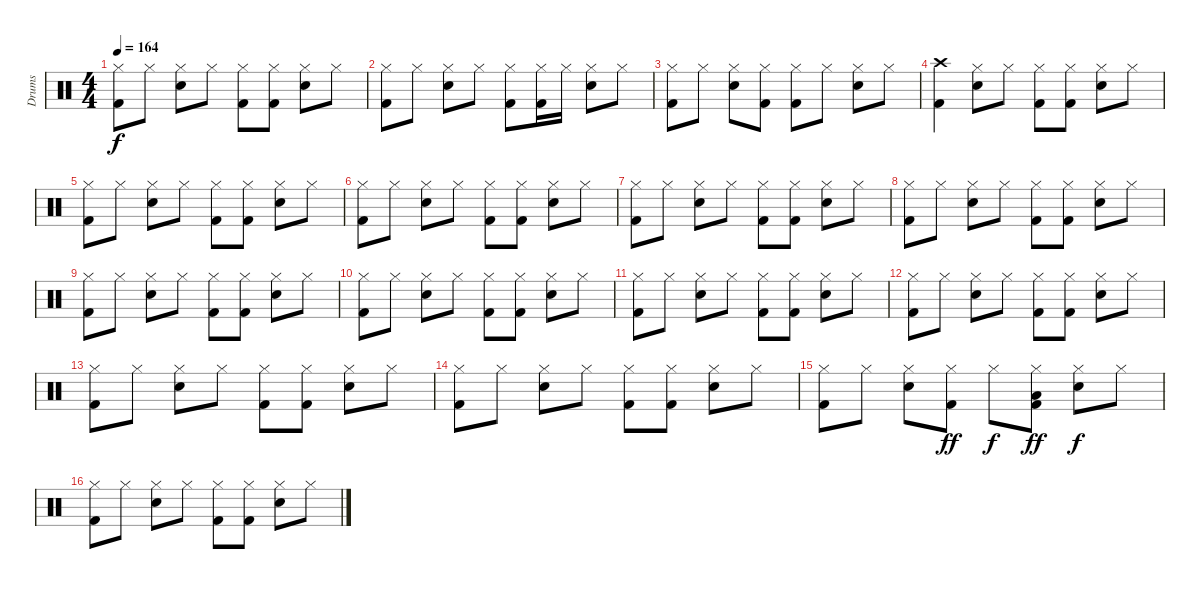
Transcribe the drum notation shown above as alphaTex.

\track ("Drums" "Drums") {instrument percussion}
\staff {score}
\articulation defaults
\ts (4 4)
\tempo 164
\clef neutral
\ks c
("Hi-Hat (closed)" "Kick (hit) 2").8{dy f} "Hi-Hat (closed)".8 ("Hi-Hat (closed)" "Snare (hit) 2").8 "Hi-Hat (closed)".8 ("Hi-Hat (closed)" "Kick (hit) 2").8 ("Hi-Hat (closed)" "Kick (hit) 2").8 ("Hi-Hat (closed)" "Snare (hit) 2").8 "Hi-Hat (closed)".8 |
("Hi-Hat (closed)" "Kick (hit) 2").8 "Hi-Hat (closed)".8 ("Hi-Hat (closed)" "Snare (hit) 2").8 "Hi-Hat (closed)".8 ("Hi-Hat (closed)" "Kick (hit) 2").8 ("Hi-Hat (closed)" "Kick (hit) 2").16 "Hi-Hat (closed)".16 ("Hi-Hat (closed)" "Snare (hit) 2").8 "Hi-Hat (closed)".8 |
("Hi-Hat (closed)" "Kick (hit) 2").8 "Hi-Hat (closed)".8 ("Hi-Hat (closed)" "Snare (hit) 2").8 ("Hi-Hat (closed)" "Kick (hit) 2").8 ("Hi-Hat (closed)" "Kick (hit) 2").8 "Hi-Hat (closed)".8 ("Hi-Hat (closed)" "Snare (hit) 2").8 "Hi-Hat (closed)".8 |
("Crash high (hit)" "Kick (hit) 2").4 ("Hi-Hat (closed)" "Snare (hit) 2").8 "Hi-Hat (closed)".8 ("Hi-Hat (closed)" "Kick (hit) 2").8 ("Hi-Hat (closed)" "Kick (hit) 2").8 ("Hi-Hat (closed)" "Snare (hit) 2").8 "Hi-Hat (closed)".8 |
("Hi-Hat (closed)" "Kick (hit) 2").8 "Hi-Hat (closed)".8 ("Hi-Hat (closed)" "Snare (hit) 2").8 "Hi-Hat (closed)".8 ("Hi-Hat (closed)" "Kick (hit) 2").8 ("Hi-Hat (closed)" "Kick (hit) 2").8 ("Hi-Hat (closed)" "Snare (hit) 2").8 "Hi-Hat (closed)".8 |
("Hi-Hat (closed)" "Kick (hit) 2").8 "Hi-Hat (closed)".8 ("Hi-Hat (closed)" "Snare (hit) 2").8 "Hi-Hat (closed)".8 ("Hi-Hat (closed)" "Kick (hit) 2").8 ("Hi-Hat (closed)" "Kick (hit) 2").8 ("Hi-Hat (closed)" "Snare (hit) 2").8 "Hi-Hat (closed)".8 |
("Hi-Hat (closed)" "Kick (hit) 2").8 "Hi-Hat (closed)".8 ("Hi-Hat (closed)" "Snare (hit) 2").8 "Hi-Hat (closed)".8 ("Hi-Hat (closed)" "Kick (hit) 2").8 ("Hi-Hat (closed)" "Kick (hit) 2").8 ("Hi-Hat (closed)" "Snare (hit) 2").8 "Hi-Hat (closed)".8 |
("Hi-Hat (closed)" "Kick (hit) 2").8 "Hi-Hat (closed)".8 ("Hi-Hat (closed)" "Snare (hit) 2").8 "Hi-Hat (closed)".8 ("Hi-Hat (closed)" "Kick (hit) 2").8 ("Hi-Hat (closed)" "Kick (hit) 2").8 ("Hi-Hat (closed)" "Snare (hit) 2").8 "Hi-Hat (closed)".8 |
("Hi-Hat (closed)" "Kick (hit) 2").8 "Hi-Hat (closed)".8 ("Hi-Hat (closed)" "Snare (hit) 2").8 "Hi-Hat (closed)".8 ("Hi-Hat (closed)" "Kick (hit) 2").8 ("Hi-Hat (closed)" "Kick (hit) 2").8 ("Hi-Hat (closed)" "Snare (hit) 2").8 "Hi-Hat (closed)".8 |
("Hi-Hat (closed)" "Kick (hit) 2").8 "Hi-Hat (closed)".8 ("Hi-Hat (closed)" "Snare (hit) 2").8 "Hi-Hat (closed)".8 ("Hi-Hat (closed)" "Kick (hit) 2").8 ("Hi-Hat (closed)" "Kick (hit) 2").8 ("Hi-Hat (closed)" "Snare (hit) 2").8 "Hi-Hat (closed)".8 |
("Hi-Hat (closed)" "Kick (hit) 2").8 "Hi-Hat (closed)".8 ("Hi-Hat (closed)" "Snare (hit) 2").8 "Hi-Hat (closed)".8 ("Hi-Hat (closed)" "Kick (hit) 2").8 ("Hi-Hat (closed)" "Kick (hit) 2").8 ("Hi-Hat (closed)" "Snare (hit) 2").8 "Hi-Hat (closed)".8 |
("Hi-Hat (closed)" "Kick (hit) 2").8 "Hi-Hat (closed)".8 ("Hi-Hat (closed)" "Snare (hit) 2").8 "Hi-Hat (closed)".8 ("Hi-Hat (closed)" "Kick (hit) 2").8 ("Hi-Hat (closed)" "Kick (hit) 2").8 ("Hi-Hat (closed)" "Snare (hit) 2").8 "Hi-Hat (closed)".8 |
("Hi-Hat (closed)" "Kick (hit) 2").8 "Hi-Hat (closed)".8 ("Hi-Hat (closed)" "Snare (hit) 2").8 "Hi-Hat (closed)".8 ("Hi-Hat (closed)" "Kick (hit) 2").8 ("Hi-Hat (closed)" "Kick (hit) 2").8 ("Hi-Hat (closed)" "Snare (hit) 2").8 "Hi-Hat (closed)".8 |
("Hi-Hat (closed)" "Kick (hit) 2").8 "Hi-Hat (closed)".8 ("Hi-Hat (closed)" "Snare (hit) 2").8 "Hi-Hat (closed)".8 ("Hi-Hat (closed)" "Kick (hit) 2").8 ("Hi-Hat (closed)" "Kick (hit) 2").8 ("Hi-Hat (closed)" "Snare (hit) 2").8 "Hi-Hat (closed)".8 |
("Hi-Hat (closed)" "Kick (hit) 2").8 "Hi-Hat (closed)".8 ("Hi-Hat (closed)" "Snare (hit) 2").8 ("Hi-Hat (closed)" "Kick (hit) 2").8{dy ff} "Hi-Hat (closed)".8{dy f} ("Hi-Hat (closed)" "Low Floor Tom (hit)" "Kick (hit) 2").8{dy ff} ("Hi-Hat (closed)" "Snare (hit) 2").8{dy f} "Hi-Hat (closed)".8 |
("Hi-Hat (closed)" "Kick (hit) 2").8 "Hi-Hat (closed)".8 ("Hi-Hat (closed)" "Snare (hit) 2").8 "Hi-Hat (closed)".8 ("Hi-Hat (closed)" "Kick (hit) 2").8 ("Hi-Hat (closed)" "Kick (hit) 2").8 ("Hi-Hat (closed)" "Snare (hit) 2").8 "Hi-Hat (closed)".8
